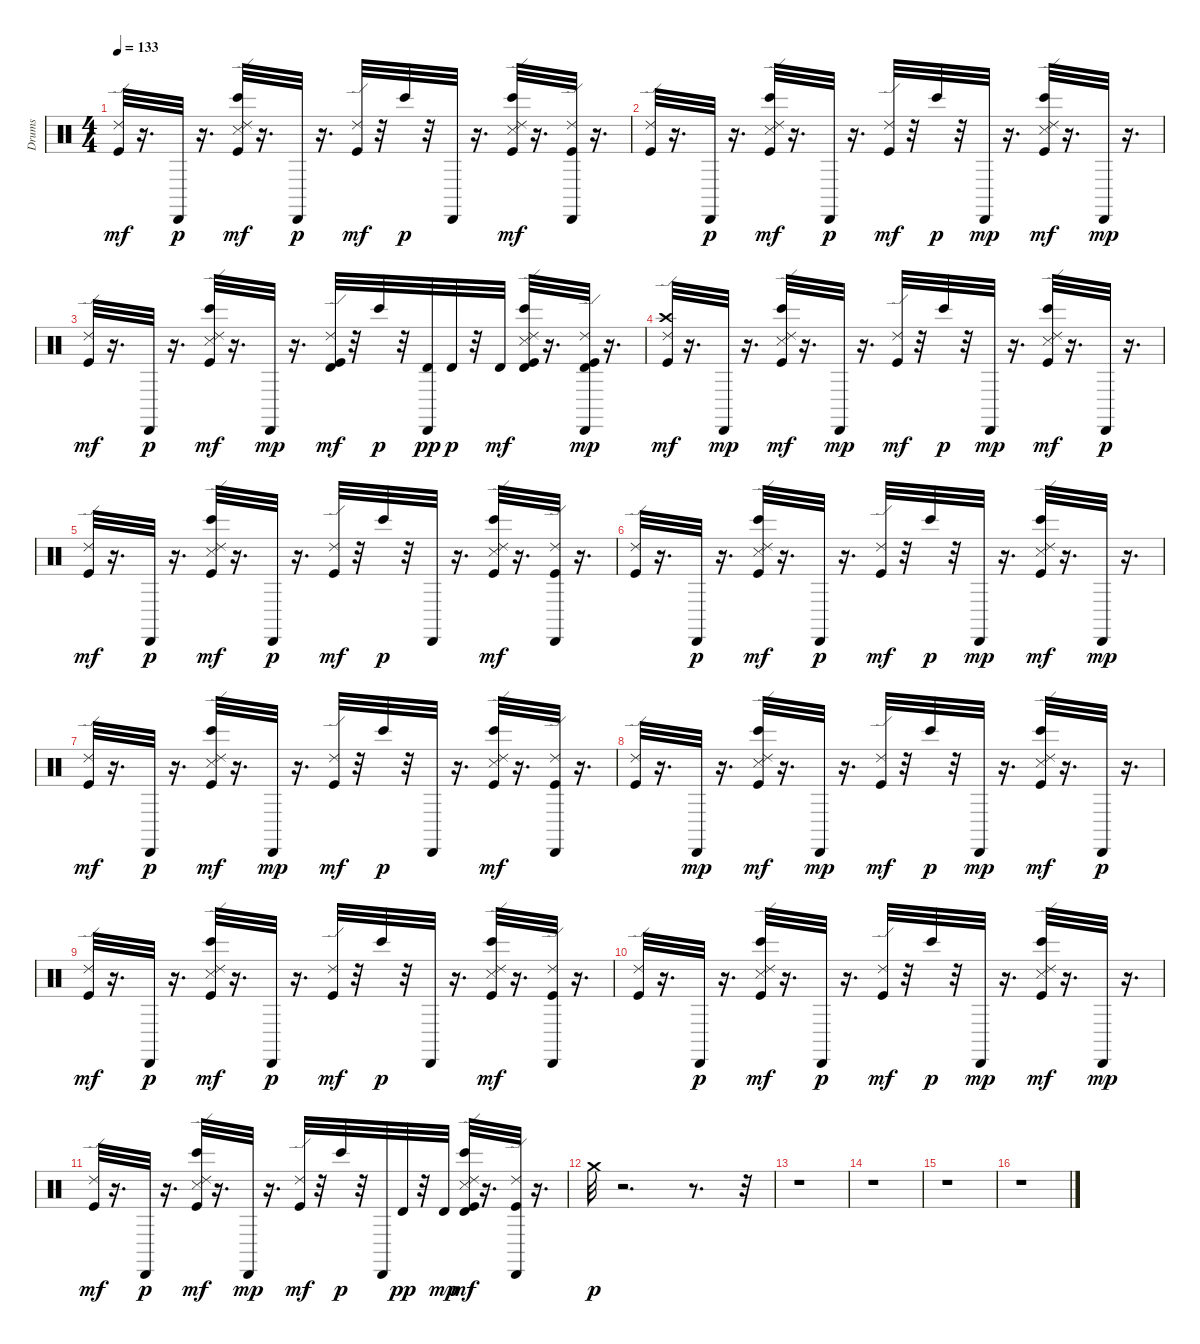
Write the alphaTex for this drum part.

\track ("Drums" "Drums") {instrument percussion}
\staff {score}
\articulation defaults
\ts (4 4)
\tempo 133
\clef neutral
\ks c
("Kick (hit)" "Ride (edge) 2").32{dy mf} r.16{d} "Cabasa (hit)".32{dy p} r.16{d} ("Kick (hit)" "Snare (side stick) 3" "Ride (edge) 2" "Bongo High (hit)").32{dy mf} r.16{d} "Cabasa (hit)".32{dy p} r.16{d} ("Kick (hit)" "Ride (edge) 2").32{dy mf} r.32 "Bongo High (hit)".32{dy p} r.32 "Cabasa (hit)".32 r.16{d} ("Kick (hit)" "Snare (side stick) 3" "Ride (edge) 2" "Bongo High (hit)").32{dy mf} r.16{d} ("Cabasa (hit)" "Kick (hit)" "Ride (edge) 2").32 r.16{d} |
("Kick (hit)" "Ride (edge) 2").32 r.16{d} "Cabasa (hit)".32{dy p} r.16{d} ("Kick (hit)" "Snare (side stick) 3" "Ride (edge) 2" "Bongo High (hit)").32{dy mf} r.16{d} "Cabasa (hit)".32{dy p} r.16{d} ("Kick (hit)" "Ride (edge) 2").32{dy mf} r.32 "Bongo High (hit)".32{dy p} r.32 "Cabasa (hit)".32{dy mp} r.16{d} ("Kick (hit)" "Snare (side stick) 3" "Ride (edge) 2" "Bongo High (hit)").32{dy mf} r.16{d} "Cabasa (hit)".32{dy mp} r.16{d} |
("Kick (hit)" "Ride (edge) 2").32{dy mf} r.16{d} "Cabasa (hit)".32{dy p} r.16{d} ("Kick (hit)" "Snare (side stick) 3" "Ride (edge) 2" "Bongo High (hit)").32{dy mf} r.16{d} "Cabasa (hit)".32{dy mp} r.16{d} ("Kick (hit)" "Ride (edge) 2" "Timbale high (hit)").32{dy mf} r.32 "Bongo High (hit)".32{dy p} r.32 ("Cabasa (hit)" "Timbale high (hit)").32{dy pp} "Timbale high (hit)".32{dy p} r.32 "Timbale high (hit)".32{dy mf} ("Kick (hit)" "Snare (side stick) 3" "Ride (edge) 2" "Bongo High (hit)" "Timbale high (hit)").32 r.16{d} ("Cabasa (hit)" "Kick (hit)" "Ride (edge) 2" "Timbale high (hit)").32{dy mp} r.16{d} |
("Kick (hit)" "Crash high (hit)" "Ride (edge) 2").32{dy mf} r.16{d} "Cabasa (hit)".32{dy mp} r.16{d} ("Kick (hit)" "Snare (side stick) 3" "Ride (edge) 2" "Bongo High (hit)").32{dy mf} r.16{d} "Cabasa (hit)".32{dy mp} r.16{d} ("Kick (hit)" "Ride (edge) 2").32{dy mf} r.32 "Bongo High (hit)".32{dy p} r.32 "Cabasa (hit)".32{dy mp} r.16{d} ("Kick (hit)" "Snare (side stick) 3" "Ride (edge) 2" "Bongo High (hit)").32{dy mf} r.16{d} "Cabasa (hit)".32{dy p} r.16{d} |
("Kick (hit)" "Ride (edge) 2").32{dy mf} r.16{d} "Cabasa (hit)".32{dy p} r.16{d} ("Kick (hit)" "Snare (side stick) 3" "Ride (edge) 2" "Bongo High (hit)").32{dy mf} r.16{d} "Cabasa (hit)".32{dy p} r.16{d} ("Kick (hit)" "Ride (edge) 2").32{dy mf} r.32 "Bongo High (hit)".32{dy p} r.32 "Cabasa (hit)".32 r.16{d} ("Kick (hit)" "Snare (side stick) 3" "Ride (edge) 2" "Bongo High (hit)").32{dy mf} r.16{d} ("Cabasa (hit)" "Kick (hit)" "Ride (edge) 2").32 r.16{d} |
("Kick (hit)" "Ride (edge) 2").32 r.16{d} "Cabasa (hit)".32{dy p} r.16{d} ("Kick (hit)" "Snare (side stick) 3" "Ride (edge) 2" "Bongo High (hit)").32{dy mf} r.16{d} "Cabasa (hit)".32{dy p} r.16{d} ("Kick (hit)" "Ride (edge) 2").32{dy mf} r.32 "Bongo High (hit)".32{dy p} r.32 "Cabasa (hit)".32{dy mp} r.16{d} ("Kick (hit)" "Snare (side stick) 3" "Ride (edge) 2" "Bongo High (hit)").32{dy mf} r.16{d} "Cabasa (hit)".32{dy mp} r.16{d} |
("Kick (hit)" "Ride (edge) 2").32{dy mf} r.16{d} "Cabasa (hit)".32{dy p} r.16{d} ("Kick (hit)" "Snare (side stick) 3" "Ride (edge) 2" "Bongo High (hit)").32{dy mf} r.16{d} "Cabasa (hit)".32{dy mp} r.16{d} ("Kick (hit)" "Ride (edge) 2").32{dy mf} r.32 "Bongo High (hit)".32{dy p} r.32 "Cabasa (hit)".32 r.16{d} ("Kick (hit)" "Snare (side stick) 3" "Ride (edge) 2" "Bongo High (hit)").32{dy mf} r.16{d} ("Cabasa (hit)" "Kick (hit)" "Ride (edge) 2").32 r.16{d} |
("Kick (hit)" "Ride (edge) 2").32 r.16{d} "Cabasa (hit)".32{dy mp} r.16{d} ("Kick (hit)" "Snare (side stick) 3" "Ride (edge) 2" "Bongo High (hit)").32{dy mf} r.16{d} "Cabasa (hit)".32{dy mp} r.16{d} ("Kick (hit)" "Ride (edge) 2").32{dy mf} r.32 "Bongo High (hit)".32{dy p} r.32 "Cabasa (hit)".32{dy mp} r.16{d} ("Kick (hit)" "Snare (side stick) 3" "Ride (edge) 2" "Bongo High (hit)").32{dy mf} r.16{d} "Cabasa (hit)".32{dy p} r.16{d} |
("Kick (hit)" "Ride (edge) 2").32{dy mf} r.16{d} "Cabasa (hit)".32{dy p} r.16{d} ("Kick (hit)" "Snare (side stick) 3" "Ride (edge) 2" "Bongo High (hit)").32{dy mf} r.16{d} "Cabasa (hit)".32{dy p} r.16{d} ("Kick (hit)" "Ride (edge) 2").32{dy mf} r.32 "Bongo High (hit)".32{dy p} r.32 "Cabasa (hit)".32 r.16{d} ("Kick (hit)" "Snare (side stick) 3" "Ride (edge) 2" "Bongo High (hit)").32{dy mf} r.16{d} ("Cabasa (hit)" "Kick (hit)" "Ride (edge) 2").32 r.16{d} |
("Kick (hit)" "Ride (edge) 2").32 r.16{d} "Cabasa (hit)".32{dy p} r.16{d} ("Kick (hit)" "Snare (side stick) 3" "Ride (edge) 2" "Bongo High (hit)").32{dy mf} r.16{d} "Cabasa (hit)".32{dy p} r.16{d} ("Kick (hit)" "Ride (edge) 2").32{dy mf} r.32 "Bongo High (hit)".32{dy p} r.32 "Cabasa (hit)".32{dy mp} r.16{d} ("Kick (hit)" "Snare (side stick) 3" "Ride (edge) 2" "Bongo High (hit)").32{dy mf} r.16{d} "Cabasa (hit)".32{dy mp} r.16{d} |
("Kick (hit)" "Ride (edge) 2").32{dy mf} r.16{d} "Cabasa (hit)".32{dy p} r.16{d} ("Kick (hit)" "Snare (side stick) 3" "Ride (edge) 2" "Bongo High (hit)").32{dy mf} r.16{d} "Cabasa (hit)".32{dy mp} r.16{d} ("Kick (hit)" "Ride (edge) 2").32{dy mf} r.32 "Bongo High (hit)".32{dy p} r.32 "Cabasa (hit)".32 "Timbale high (hit)".32{dy pp} r.32 "Timbale high (hit)".32{dy mp} ("Kick (hit)" "Snare (side stick) 3" "Ride (edge) 2" "Bongo High (hit)" "Timbale high (hit)").32{dy mf} r.16{d} ("Cabasa (hit)" "Kick (hit)" "Ride (edge) 2").32 r.16{d} |
"Crash medium (hit)".32{dy p} r.2{d} r.8{d} r.32 |
r.1 |
r.1 |
r.1 |
r.1
